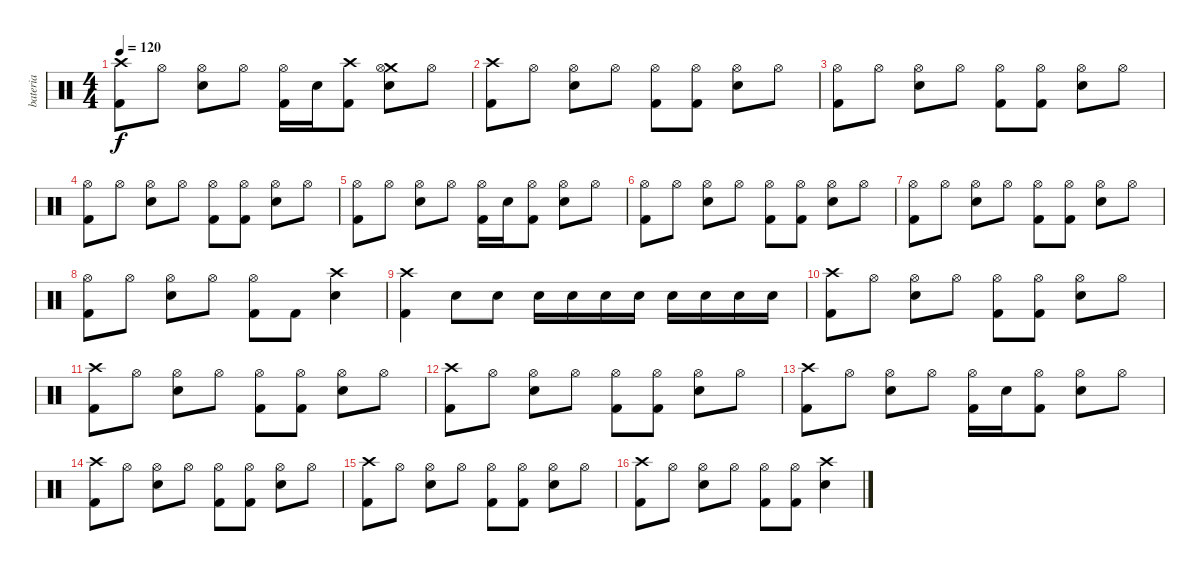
\track ("bateria" "bateria") {instrument percussion}
\staff {score}
\articulation defaults
\ts (4 4)
\tempo 120
\clef neutral
\ks c
("Crash high (hit)" "Kick (hit) 2").8{dy f} "Hi-Hat (open)".8 ("Electric Snare (hit)" "Hi-Hat (open)").8 "Hi-Hat (open)".8 ("Kick (hit) 2" "Hi-Hat (open)").16 "Electric Snare (hit)".16 ("Crash high (hit)" "Kick (hit) 2").8 ("Crash medium (hit)" "Electric Snare (hit)" "Hi-Hat (open)").8 "Hi-Hat (open)".8 |
("Crash high (hit)" "Kick (hit) 2").8 "Hi-Hat (open)".8 ("Electric Snare (hit)" "Hi-Hat (open)").8 "Hi-Hat (open)".8 ("Kick (hit) 2" "Hi-Hat (open)").8 ("Kick (hit) 2" "Hi-Hat (open)").8 ("Electric Snare (hit)" "Hi-Hat (open)").8 "Hi-Hat (open)".8 |
("Kick (hit) 2" "Hi-Hat (open)").8 "Hi-Hat (open)".8 ("Electric Snare (hit)" "Hi-Hat (open)").8 "Hi-Hat (open)".8 ("Kick (hit) 2" "Hi-Hat (open)").8 ("Kick (hit) 2" "Hi-Hat (open)").8 ("Electric Snare (hit)" "Hi-Hat (open)").8 "Hi-Hat (open)".8 |
("Kick (hit) 2" "Hi-Hat (open)").8 "Hi-Hat (open)".8 ("Electric Snare (hit)" "Hi-Hat (open)").8 "Hi-Hat (open)".8 ("Kick (hit) 2" "Hi-Hat (open)").8 ("Kick (hit) 2" "Hi-Hat (open)").8 ("Electric Snare (hit)" "Hi-Hat (open)").8 "Hi-Hat (open)".8 |
("Kick (hit) 2" "Hi-Hat (open)").8 "Hi-Hat (open)".8 ("Electric Snare (hit)" "Hi-Hat (open)").8 "Hi-Hat (open)".8 ("Kick (hit) 2" "Hi-Hat (open)").16 "Electric Snare (hit)".16 ("Kick (hit) 2" "Hi-Hat (open)").8 ("Electric Snare (hit)" "Hi-Hat (open)").8 "Hi-Hat (open)".8 |
("Kick (hit) 2" "Hi-Hat (open)").8 "Hi-Hat (open)".8 ("Electric Snare (hit)" "Hi-Hat (open)").8 "Hi-Hat (open)".8 ("Kick (hit) 2" "Hi-Hat (open)").8 ("Kick (hit) 2" "Hi-Hat (open)").8 ("Electric Snare (hit)" "Hi-Hat (open)").8 "Hi-Hat (open)".8 |
("Kick (hit) 2" "Hi-Hat (open)").8 "Hi-Hat (open)".8 ("Electric Snare (hit)" "Hi-Hat (open)").8 "Hi-Hat (open)".8 ("Kick (hit) 2" "Hi-Hat (open)").8 ("Kick (hit) 2" "Hi-Hat (open)").8 ("Electric Snare (hit)" "Hi-Hat (open)").8 "Hi-Hat (open)".8 |
("Kick (hit) 2" "Hi-Hat (open)").8 "Hi-Hat (open)".8 ("Electric Snare (hit)" "Hi-Hat (open)").8 "Hi-Hat (open)".8 ("Kick (hit) 2" "Hi-Hat (open)").8 "Kick (hit) 2".8 ("Crash high (hit)" "Electric Snare (hit)").4 |
("Crash high (hit)" "Kick (hit) 2").4 "Electric Snare (hit)".8 "Electric Snare (hit)".8 "Electric Snare (hit)".16 "Electric Snare (hit)".16 "Electric Snare (hit)".16 "Electric Snare (hit)".16 "Electric Snare (hit)".16 "Electric Snare (hit)".16 "Electric Snare (hit)".16 "Electric Snare (hit)".16 |
("Crash high (hit)" "Kick (hit) 2").8 "Hi-Hat (open)".8 ("Electric Snare (hit)" "Hi-Hat (open)").8 "Hi-Hat (open)".8 ("Kick (hit) 2" "Hi-Hat (open)").8 ("Kick (hit) 2" "Hi-Hat (open)").8 ("Electric Snare (hit)" "Hi-Hat (open)").8 "Hi-Hat (open)".8 |
("Crash high (hit)" "Kick (hit) 2").8 "Hi-Hat (open)".8 ("Electric Snare (hit)" "Hi-Hat (open)").8 "Hi-Hat (open)".8 ("Kick (hit) 2" "Hi-Hat (open)").8 ("Kick (hit) 2" "Hi-Hat (open)").8 ("Electric Snare (hit)" "Hi-Hat (open)").8 "Hi-Hat (open)".8 |
("Crash high (hit)" "Kick (hit) 2").8 "Hi-Hat (open)".8 ("Electric Snare (hit)" "Hi-Hat (open)").8 "Hi-Hat (open)".8 ("Kick (hit) 2" "Hi-Hat (open)").8 ("Kick (hit) 2" "Hi-Hat (open)").8 ("Electric Snare (hit)" "Hi-Hat (open)").8 "Hi-Hat (open)".8 |
("Crash high (hit)" "Kick (hit) 2").8 "Hi-Hat (open)".8 ("Electric Snare (hit)" "Hi-Hat (open)").8 "Hi-Hat (open)".8 ("Kick (hit) 2" "Hi-Hat (open)").16 "Electric Snare (hit)".16 ("Kick (hit) 2" "Hi-Hat (open)").8 ("Electric Snare (hit)" "Hi-Hat (open)").8 "Hi-Hat (open)".8 |
("Crash high (hit)" "Kick (hit) 2").8 "Hi-Hat (open)".8 ("Electric Snare (hit)" "Hi-Hat (open)").8 "Hi-Hat (open)".8 ("Kick (hit) 2" "Hi-Hat (open)").8 ("Kick (hit) 2" "Hi-Hat (open)").8 ("Electric Snare (hit)" "Hi-Hat (open)").8 "Hi-Hat (open)".8 |
("Crash high (hit)" "Kick (hit) 2").8 "Hi-Hat (open)".8 ("Electric Snare (hit)" "Hi-Hat (open)").8 "Hi-Hat (open)".8 ("Kick (hit) 2" "Hi-Hat (open)").8 ("Kick (hit) 2" "Hi-Hat (open)").8 ("Electric Snare (hit)" "Hi-Hat (open)").8 "Hi-Hat (open)".8 |
("Crash high (hit)" "Kick (hit) 2").8 "Hi-Hat (open)".8 ("Electric Snare (hit)" "Hi-Hat (open)").8 "Hi-Hat (open)".8 ("Kick (hit) 2" "Hi-Hat (open)").8 ("Kick (hit) 2" "Hi-Hat (open)").8 ("Crash high (hit)" "Electric Snare (hit)").4
